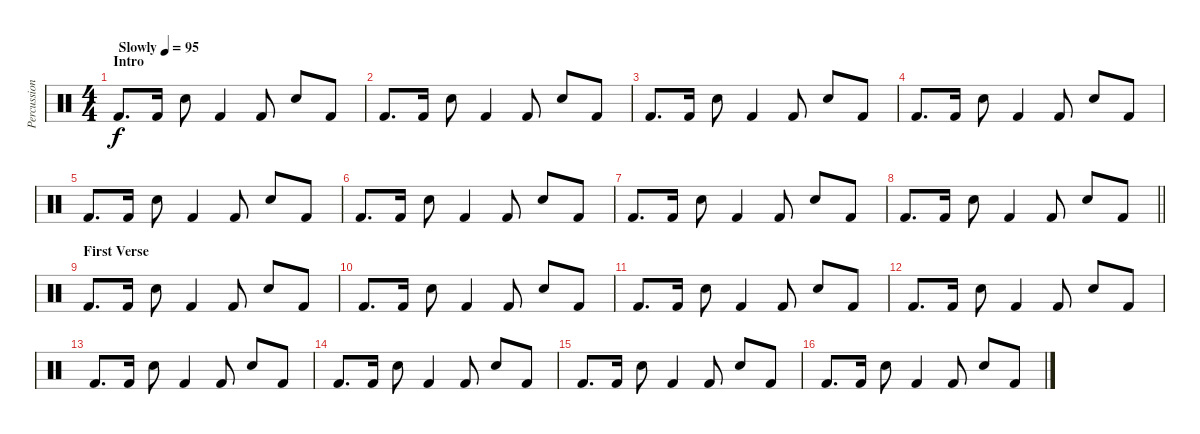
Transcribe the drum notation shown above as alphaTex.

\track ("Percussioni" "Percussion") {instrument percussion}
\staff {score}
\articulation defaults
\ts (4 4)
\section ("" "Intro")
\tempo (95 "Slowly")
\clef neutral
\ks c "Kick (hit) 2".8{d dy f} "Kick (hit) 2".16 "Snare (hit) 2".8 "Kick (hit) 2".4 "Kick (hit) 2".8 "Snare (hit) 2".8 "Kick (hit) 2".8
|
"Kick (hit) 2".8{d} "Kick (hit) 2".16 "Snare (hit) 2".8 "Kick (hit) 2".4 "Kick (hit) 2".8 "Snare (hit) 2".8 "Kick (hit) 2".8 |
"Kick (hit) 2".8{d} "Kick (hit) 2".16 "Snare (hit) 2".8 "Kick (hit) 2".4 "Kick (hit) 2".8 "Snare (hit) 2".8 "Kick (hit) 2".8 |
"Kick (hit) 2".8{d} "Kick (hit) 2".16 "Snare (hit) 2".8 "Kick (hit) 2".4 "Kick (hit) 2".8 "Snare (hit) 2".8 "Kick (hit) 2".8 |
"Kick (hit) 2".8{d} "Kick (hit) 2".16 "Snare (hit) 2".8 "Kick (hit) 2".4 "Kick (hit) 2".8 "Snare (hit) 2".8 "Kick (hit) 2".8 |
"Kick (hit) 2".8{d} "Kick (hit) 2".16 "Snare (hit) 2".8 "Kick (hit) 2".4 "Kick (hit) 2".8 "Snare (hit) 2".8 "Kick (hit) 2".8 |
"Kick (hit) 2".8{d} "Kick (hit) 2".16 "Snare (hit) 2".8 "Kick (hit) 2".4 "Kick (hit) 2".8 "Snare (hit) 2".8 "Kick (hit) 2".8 |
\barLineRight lightlight "Kick (hit) 2".8{d} "Kick (hit) 2".16 "Snare (hit) 2".8 "Kick (hit) 2".4 "Kick (hit) 2".8 "Snare (hit) 2".8 "Kick (hit) 2".8
|
\section ("" "First Verse")
"Kick (hit) 2".8{d} "Kick (hit) 2".16 "Snare (hit) 2".8 "Kick (hit) 2".4 "Kick (hit) 2".8 "Snare (hit) 2".8 "Kick (hit) 2".8 |
"Kick (hit) 2".8{d} "Kick (hit) 2".16 "Snare (hit) 2".8 "Kick (hit) 2".4 "Kick (hit) 2".8 "Snare (hit) 2".8 "Kick (hit) 2".8 |
"Kick (hit) 2".8{d} "Kick (hit) 2".16 "Snare (hit) 2".8 "Kick (hit) 2".4 "Kick (hit) 2".8 "Snare (hit) 2".8 "Kick (hit) 2".8 |
"Kick (hit) 2".8{d} "Kick (hit) 2".16 "Snare (hit) 2".8 "Kick (hit) 2".4 "Kick (hit) 2".8 "Snare (hit) 2".8 "Kick (hit) 2".8 |
"Kick (hit) 2".8{d} "Kick (hit) 2".16 "Snare (hit) 2".8 "Kick (hit) 2".4 "Kick (hit) 2".8 "Snare (hit) 2".8 "Kick (hit) 2".8 |
"Kick (hit) 2".8{d} "Kick (hit) 2".16 "Snare (hit) 2".8 "Kick (hit) 2".4 "Kick (hit) 2".8 "Snare (hit) 2".8 "Kick (hit) 2".8 |
"Kick (hit) 2".8{d} "Kick (hit) 2".16 "Snare (hit) 2".8 "Kick (hit) 2".4 "Kick (hit) 2".8 "Snare (hit) 2".8 "Kick (hit) 2".8 |
"Kick (hit) 2".8{d} "Kick (hit) 2".16 "Snare (hit) 2".8 "Kick (hit) 2".4 "Kick (hit) 2".8 "Snare (hit) 2".8 "Kick (hit) 2".8
